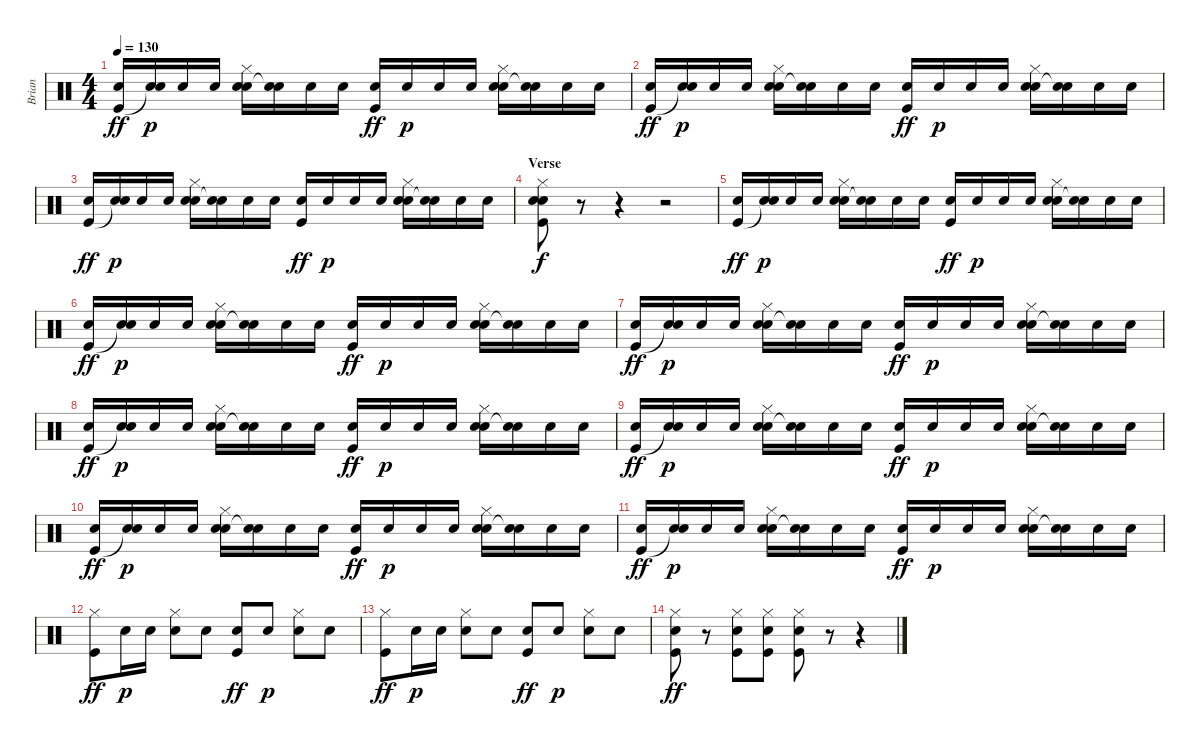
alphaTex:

\track ("Brian" "Brian") {instrument percussion}
\staff {score}
\articulation defaults
\ts (4 4)
\tempo 130
\clef neutral
\ks c
("Snare (hit) 2" "Kick (hit)").16{dy ff} ("Snare (hit) 2" "Snare (hit)"{t}).16{dy p} "Snare (hit) 2".16 "Snare (hit) 2".16 ("Snare (hit) 2" "Hi-Hat (closed)" "Snare (hit) 2").16 ("Snare (hit)"{t} "Snare (hit) 2").16 "Snare (hit) 2".16 "Snare (hit) 2".16 ("Snare (hit) 2" "Kick (hit)").16{dy ff} "Snare (hit) 2".16{dy p} "Snare (hit) 2".16 "Snare (hit) 2".16 ("Snare (hit) 2" "Hi-Hat (closed)" "Snare (hit) 2").16 ("Snare (hit)"{t} "Snare (hit) 2").16 "Snare (hit) 2".16 "Snare (hit) 2".16 |
("Snare (hit) 2" "Kick (hit)").16{dy ff} ("Snare (hit) 2" "Snare (hit)"{t}).16{dy p} "Snare (hit) 2".16 "Snare (hit) 2".16 ("Snare (hit) 2" "Hi-Hat (closed)" "Snare (hit) 2").16 ("Snare (hit)"{t} "Snare (hit) 2").16 "Snare (hit) 2".16 "Snare (hit) 2".16 ("Snare (hit) 2" "Kick (hit)").16{dy ff} "Snare (hit) 2".16{dy p} "Snare (hit) 2".16 "Snare (hit) 2".16 ("Snare (hit) 2" "Hi-Hat (closed)" "Snare (hit) 2").16 ("Snare (hit)"{t} "Snare (hit) 2").16 "Snare (hit) 2".16 "Snare (hit) 2".16 |
("Snare (hit) 2" "Kick (hit)").16{dy ff} ("Snare (hit) 2" "Snare (hit)"{t}).16{dy p} "Snare (hit) 2".16 "Snare (hit) 2".16 ("Snare (hit) 2" "Hi-Hat (closed)" "Snare (hit) 2").16 ("Snare (hit)"{t} "Snare (hit) 2").16 "Snare (hit) 2".16 "Snare (hit) 2".16 ("Snare (hit) 2" "Kick (hit)").16{dy ff} "Snare (hit) 2".16{dy p} "Snare (hit) 2".16 "Snare (hit) 2".16 ("Snare (hit) 2" "Hi-Hat (closed)" "Snare (hit) 2").16 ("Snare (hit)"{t} "Snare (hit) 2").16 "Snare (hit) 2".16 "Snare (hit) 2".16 |
\section ("" "Verse")
("Snare (hit) 2" "Hi-Hat (closed)" "Snare (hit) 2" "Kick (hit)").8{dy f} r.8 r.4 r.2 |
("Snare (hit) 2" "Kick (hit)").16{dy ff} ("Snare (hit) 2" "Snare (hit)"{t}).16{dy p} "Snare (hit) 2".16 "Snare (hit) 2".16 ("Snare (hit) 2" "Hi-Hat (closed)" "Snare (hit) 2").16 ("Snare (hit)"{t} "Snare (hit) 2").16 "Snare (hit) 2".16 "Snare (hit) 2".16 ("Snare (hit) 2" "Kick (hit)").16{dy ff} "Snare (hit) 2".16{dy p} "Snare (hit) 2".16 "Snare (hit) 2".16 ("Snare (hit) 2" "Hi-Hat (closed)" "Snare (hit) 2").16 ("Snare (hit)"{t} "Snare (hit) 2").16 "Snare (hit) 2".16 "Snare (hit) 2".16 |
("Snare (hit) 2" "Kick (hit)").16{dy ff} ("Snare (hit) 2" "Snare (hit)"{t}).16{dy p} "Snare (hit) 2".16 "Snare (hit) 2".16 ("Snare (hit) 2" "Hi-Hat (closed)" "Snare (hit) 2").16 ("Snare (hit)"{t} "Snare (hit) 2").16 "Snare (hit) 2".16 "Snare (hit) 2".16 ("Snare (hit) 2" "Kick (hit)").16{dy ff} "Snare (hit) 2".16{dy p} "Snare (hit) 2".16 "Snare (hit) 2".16 ("Snare (hit) 2" "Hi-Hat (closed)" "Snare (hit) 2").16 ("Snare (hit)"{t} "Snare (hit) 2").16 "Snare (hit) 2".16 "Snare (hit) 2".16 |
("Snare (hit) 2" "Kick (hit)").16{dy ff} ("Snare (hit) 2" "Snare (hit)"{t}).16{dy p} "Snare (hit) 2".16 "Snare (hit) 2".16 ("Snare (hit) 2" "Hi-Hat (closed)" "Snare (hit) 2").16 ("Snare (hit)"{t} "Snare (hit) 2").16 "Snare (hit) 2".16 "Snare (hit) 2".16 ("Snare (hit) 2" "Kick (hit)").16{dy ff} "Snare (hit) 2".16{dy p} "Snare (hit) 2".16 "Snare (hit) 2".16 ("Snare (hit) 2" "Hi-Hat (closed)" "Snare (hit) 2").16 ("Snare (hit)"{t} "Snare (hit) 2").16 "Snare (hit) 2".16 "Snare (hit) 2".16 |
("Snare (hit) 2" "Kick (hit)").16{dy ff} ("Snare (hit) 2" "Snare (hit)"{t}).16{dy p} "Snare (hit) 2".16 "Snare (hit) 2".16 ("Snare (hit) 2" "Hi-Hat (closed)" "Snare (hit) 2").16 ("Snare (hit)"{t} "Snare (hit) 2").16 "Snare (hit) 2".16 "Snare (hit) 2".16 ("Snare (hit) 2" "Kick (hit)").16{dy ff} "Snare (hit) 2".16{dy p} "Snare (hit) 2".16 "Snare (hit) 2".16 ("Snare (hit) 2" "Hi-Hat (closed)" "Snare (hit) 2").16 ("Snare (hit)"{t} "Snare (hit) 2").16 "Snare (hit) 2".16 "Snare (hit) 2".16 |
("Snare (hit) 2" "Kick (hit)").16{dy ff} ("Snare (hit) 2" "Snare (hit)"{t}).16{dy p} "Snare (hit) 2".16 "Snare (hit) 2".16 ("Snare (hit) 2" "Hi-Hat (closed)" "Snare (hit) 2").16 ("Snare (hit)"{t} "Snare (hit) 2").16 "Snare (hit) 2".16 "Snare (hit) 2".16 ("Snare (hit) 2" "Kick (hit)").16{dy ff} "Snare (hit) 2".16{dy p} "Snare (hit) 2".16 "Snare (hit) 2".16 ("Snare (hit) 2" "Hi-Hat (closed)" "Snare (hit) 2").16 ("Snare (hit)"{t} "Snare (hit) 2").16 "Snare (hit) 2".16 "Snare (hit) 2".16 |
("Snare (hit) 2" "Kick (hit)").16{dy ff} ("Snare (hit) 2" "Snare (hit)"{t}).16{dy p} "Snare (hit) 2".16 "Snare (hit) 2".16 ("Snare (hit) 2" "Hi-Hat (closed)" "Snare (hit) 2").16 ("Snare (hit)"{t} "Snare (hit) 2").16 "Snare (hit) 2".16 "Snare (hit) 2".16 ("Snare (hit) 2" "Kick (hit)").16{dy ff} "Snare (hit) 2".16{dy p} "Snare (hit) 2".16 "Snare (hit) 2".16 ("Snare (hit) 2" "Hi-Hat (closed)" "Snare (hit) 2").16 ("Snare (hit)"{t} "Snare (hit) 2").16 "Snare (hit) 2".16 "Snare (hit) 2".16 |
("Snare (hit) 2" "Kick (hit)").16{dy ff} ("Snare (hit) 2" "Snare (hit)"{t}).16{dy p} "Snare (hit) 2".16 "Snare (hit) 2".16 ("Snare (hit) 2" "Hi-Hat (closed)" "Snare (hit) 2").16 ("Snare (hit)"{t} "Snare (hit) 2").16 "Snare (hit) 2".16 "Snare (hit) 2".16 ("Snare (hit) 2" "Kick (hit)").16{dy ff} "Snare (hit) 2".16{dy p} "Snare (hit) 2".16 "Snare (hit) 2".16 ("Snare (hit) 2" "Hi-Hat (closed)" "Snare (hit) 2").16 ("Snare (hit)"{t} "Snare (hit) 2").16 "Snare (hit) 2".16 "Snare (hit) 2".16 |
("Hi-Hat (closed)" "Kick (hit)").8{dy ff} "Snare (hit) 2".16{dy p} "Snare (hit) 2".16 ("Hi-Hat (closed)" "Snare (hit) 2").8 "Snare (hit) 2".8 ("Snare (hit) 2" "Kick (hit)").8{dy ff} "Snare (hit) 2".8{dy p} ("Hi-Hat (closed)" "Snare (hit) 2").8 "Snare (hit) 2".8 |
("Hi-Hat (closed)" "Kick (hit)").8{dy ff} "Snare (hit) 2".16{dy p} "Snare (hit) 2".16 ("Hi-Hat (closed)" "Snare (hit) 2").8 "Snare (hit) 2".8 ("Snare (hit) 2" "Kick (hit)").8{dy ff} "Snare (hit) 2".8{dy p} ("Hi-Hat (closed)" "Snare (hit) 2").8 "Snare (hit) 2".8 |
("Hi-Hat (closed)" "Snare (hit) 2" "Kick (hit)").8{dy ff} r.8 ("Hi-Hat (closed)" "Snare (hit) 2" "Kick (hit)").8 ("Hi-Hat (closed)" "Snare (hit) 2" "Kick (hit)").8 ("Hi-Hat (closed)" "Snare (hit) 2" "Kick (hit)").8 r.8 r.4
